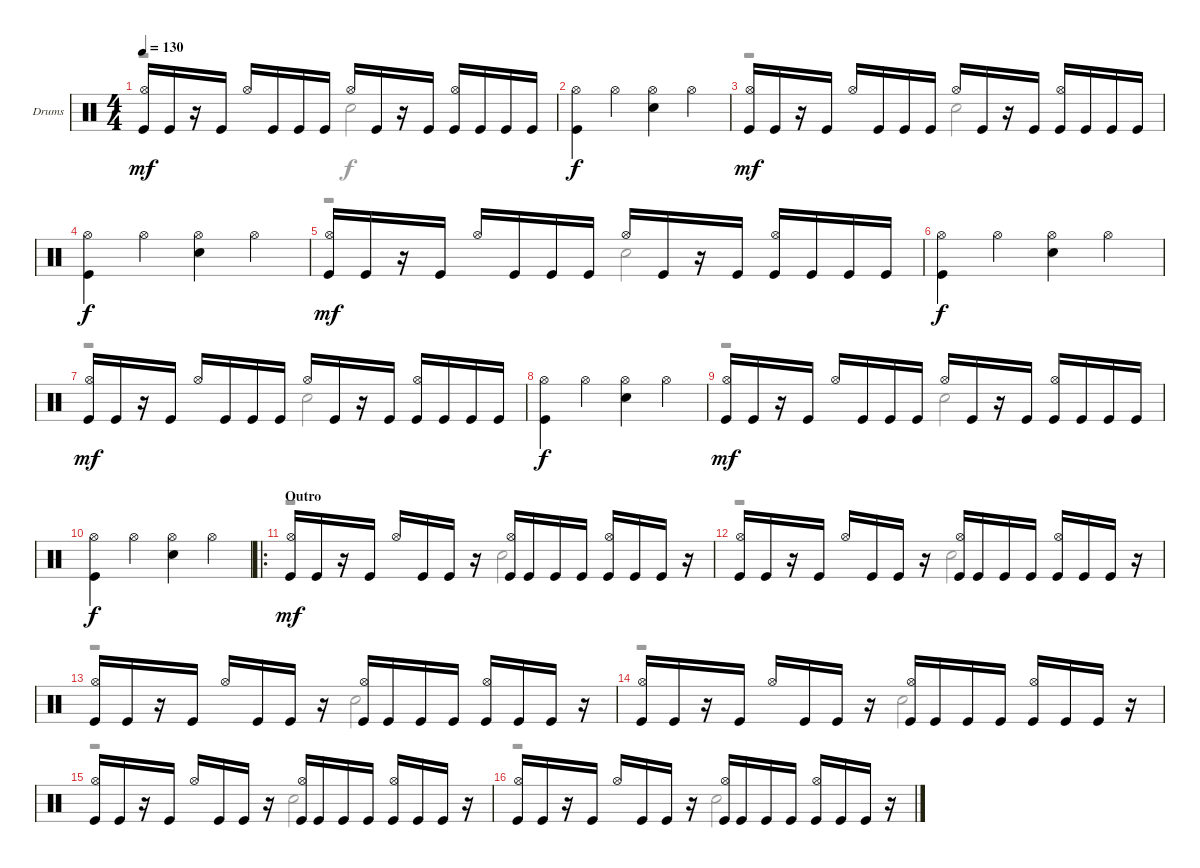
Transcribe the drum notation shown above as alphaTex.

\bracketExtendMode groupsimilarinstruments
\firstSystemTrackNameOrientation horizontal
\otherSystemsTrackNameOrientation horizontal
\track ("Drumkit" "Drums") {instrument percussion}
\staff {score}
\articulation defaults
\voice
\ts (4 4)
\tempo 130
\clef neutral
\ks c
("Kick (hit)" "Hi-Hat (open)").16{dy mf} "Kick (hit)".16 r.16 "Kick (hit)".16 "Hi-Hat (open)".16 "Kick (hit)".16 "Kick (hit)".16 "Kick (hit)".16 "Hi-Hat (open)".16 "Kick (hit)".16 r.16 "Kick (hit)".16 ("Hi-Hat (open)" "Kick (hit)").16 "Kick (hit)".16 "Kick (hit)".16 "Kick (hit)".16 |
("Hi-Hat (open)" "Kick (hit)").4{dy f} "Hi-Hat (open)".4 ("Hi-Hat (open)" "Snare (hit) 2").4 "Hi-Hat (open)".4 |
("Kick (hit)" "Hi-Hat (open)").16{dy mf} "Kick (hit)".16 r.16 "Kick (hit)".16 "Hi-Hat (open)".16 "Kick (hit)".16 "Kick (hit)".16 "Kick (hit)".16 "Hi-Hat (open)".16 "Kick (hit)".16 r.16 "Kick (hit)".16 ("Hi-Hat (open)" "Kick (hit)").16 "Kick (hit)".16 "Kick (hit)".16 "Kick (hit)".16 |
("Hi-Hat (open)" "Kick (hit)").4{dy f} "Hi-Hat (open)".4 ("Hi-Hat (open)" "Snare (hit) 2").4 "Hi-Hat (open)".4 |
("Kick (hit)" "Hi-Hat (open)").16{dy mf} "Kick (hit)".16 r.16 "Kick (hit)".16 "Hi-Hat (open)".16 "Kick (hit)".16 "Kick (hit)".16 "Kick (hit)".16 "Hi-Hat (open)".16 "Kick (hit)".16 r.16 "Kick (hit)".16 ("Hi-Hat (open)" "Kick (hit)").16 "Kick (hit)".16 "Kick (hit)".16 "Kick (hit)".16 |
("Hi-Hat (open)" "Kick (hit)").4{dy f} "Hi-Hat (open)".4 ("Hi-Hat (open)" "Snare (hit) 2").4 "Hi-Hat (open)".4 |
("Kick (hit)" "Hi-Hat (open)").16{dy mf} "Kick (hit)".16 r.16 "Kick (hit)".16 "Hi-Hat (open)".16 "Kick (hit)".16 "Kick (hit)".16 "Kick (hit)".16 "Hi-Hat (open)".16 "Kick (hit)".16 r.16 "Kick (hit)".16 ("Hi-Hat (open)" "Kick (hit)").16 "Kick (hit)".16 "Kick (hit)".16 "Kick (hit)".16 |
("Hi-Hat (open)" "Kick (hit)").4{dy f} "Hi-Hat (open)".4 ("Hi-Hat (open)" "Snare (hit) 2").4 "Hi-Hat (open)".4 |
("Kick (hit)" "Hi-Hat (open)").16{dy mf} "Kick (hit)".16 r.16 "Kick (hit)".16 "Hi-Hat (open)".16 "Kick (hit)".16 "Kick (hit)".16 "Kick (hit)".16 "Hi-Hat (open)".16 "Kick (hit)".16 r.16 "Kick (hit)".16 ("Hi-Hat (open)" "Kick (hit)").16 "Kick (hit)".16 "Kick (hit)".16 "Kick (hit)".16 |
("Hi-Hat (open)" "Kick (hit)").4{dy f} "Hi-Hat (open)".4 ("Hi-Hat (open)" "Snare (hit) 2").4 "Hi-Hat (open)".4 |
\ro
\section ("" "Outro")
("Kick (hit)" "Hi-Hat (open)").16{dy mf} "Kick (hit)".16 r.16 "Kick (hit)".16 "Hi-Hat (open)".16 "Kick (hit)".16 "Kick (hit)".16 r.16 ("Hi-Hat (open)" "Kick (hit)").16 "Kick (hit)".16 "Kick (hit)".16 "Kick (hit)".16 ("Hi-Hat (open)" "Kick (hit)").16 "Kick (hit)".16 "Kick (hit)".16 r.16 |
("Kick (hit)" "Hi-Hat (open)").16 "Kick (hit)".16 r.16 "Kick (hit)".16 "Hi-Hat (open)".16 "Kick (hit)".16 "Kick (hit)".16 r.16 ("Hi-Hat (open)" "Kick (hit)").16 "Kick (hit)".16 "Kick (hit)".16 "Kick (hit)".16 ("Hi-Hat (open)" "Kick (hit)").16 "Kick (hit)".16 "Kick (hit)".16 r.16 |
("Kick (hit)" "Hi-Hat (open)").16 "Kick (hit)".16 r.16 "Kick (hit)".16 "Hi-Hat (open)".16 "Kick (hit)".16 "Kick (hit)".16 r.16 ("Hi-Hat (open)" "Kick (hit)").16 "Kick (hit)".16 "Kick (hit)".16 "Kick (hit)".16 ("Hi-Hat (open)" "Kick (hit)").16 "Kick (hit)".16 "Kick (hit)".16 r.16 |
("Kick (hit)" "Hi-Hat (open)").16 "Kick (hit)".16 r.16 "Kick (hit)".16 "Hi-Hat (open)".16 "Kick (hit)".16 "Kick (hit)".16 r.16 ("Hi-Hat (open)" "Kick (hit)").16 "Kick (hit)".16 "Kick (hit)".16 "Kick (hit)".16 ("Hi-Hat (open)" "Kick (hit)").16 "Kick (hit)".16 "Kick (hit)".16 r.16 |
("Kick (hit)" "Hi-Hat (open)").16 "Kick (hit)".16 r.16 "Kick (hit)".16 "Hi-Hat (open)".16 "Kick (hit)".16 "Kick (hit)".16 r.16 ("Hi-Hat (open)" "Kick (hit)").16 "Kick (hit)".16 "Kick (hit)".16 "Kick (hit)".16 ("Hi-Hat (open)" "Kick (hit)").16 "Kick (hit)".16 "Kick (hit)".16 r.16 |
("Kick (hit)" "Hi-Hat (open)").16 "Kick (hit)".16 r.16 "Kick (hit)".16 "Hi-Hat (open)".16 "Kick (hit)".16 "Kick (hit)".16 r.16 ("Hi-Hat (open)" "Kick (hit)").16 "Kick (hit)".16 "Kick (hit)".16 "Kick (hit)".16 ("Hi-Hat (open)" "Kick (hit)").16 "Kick (hit)".16 "Kick (hit)".16 r.16
\voice
\clef neutral
\ottava regular
\simile none
\ks c
r.2{dy f} "Snare (hit) 2".2 |
|
r.2 "Snare (hit) 2".2 |
|
r.2 "Snare (hit) 2".2 |
|
r.2 "Snare (hit) 2".2 |
|
r.2 "Snare (hit) 2".2 |
|
r.2 "Snare (hit) 2".2 |
r.2 "Snare (hit) 2".2 |
r.2 "Snare (hit) 2".2 |
r.2 "Snare (hit) 2".2 |
r.2 "Snare (hit) 2".2 |
r.2 "Snare (hit) 2".2
